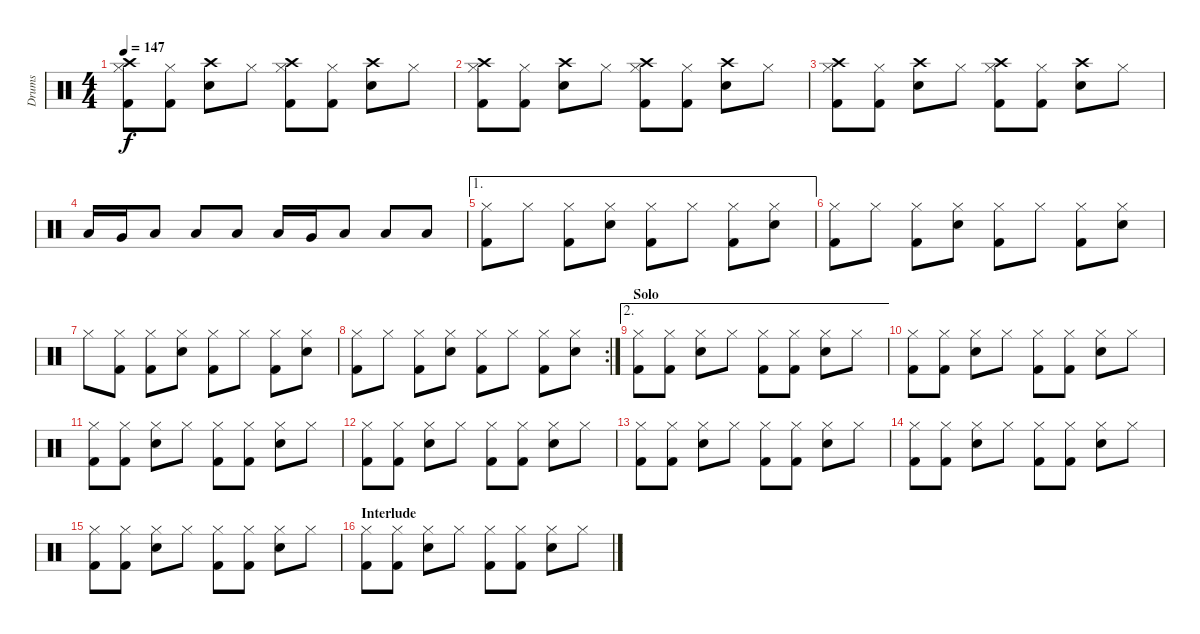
\track ("Drums" "Drums") {instrument percussion}
\staff {score}
\articulation defaults
\ts (4 4)
\tempo 147
\clef neutral
\ks c
("Kick (hit) 2" "Hi-Hat (closed)" "Crash high (hit)").8{dy f} ("Kick (hit) 2" "Hi-Hat (closed)").8 ("Electric Snare (hit)" "Crash high (hit)").8 "Hi-Hat (closed)".8 ("Kick (hit) 2" "Hi-Hat (closed)" "Crash high (hit)").8 ("Kick (hit) 2" "Hi-Hat (closed)").8 ("Electric Snare (hit)" "Crash high (hit)").8 "Hi-Hat (closed)".8 |
("Kick (hit) 2" "Hi-Hat (closed)" "Crash high (hit)").8 ("Kick (hit) 2" "Hi-Hat (closed)").8 ("Electric Snare (hit)" "Crash high (hit)").8 "Hi-Hat (closed)".8 ("Kick (hit) 2" "Hi-Hat (closed)" "Crash high (hit)").8 ("Kick (hit) 2" "Hi-Hat (closed)").8 ("Electric Snare (hit)" "Crash high (hit)").8 "Hi-Hat (closed)".8 |
("Kick (hit) 2" "Hi-Hat (closed)" "Crash high (hit)").8 ("Kick (hit) 2" "Hi-Hat (closed)").8 ("Electric Snare (hit)" "Crash high (hit)").8 "Hi-Hat (closed)".8 ("Kick (hit) 2" "Hi-Hat (closed)" "Crash high (hit)").8 ("Kick (hit) 2" "Hi-Hat (closed)").8 ("Electric Snare (hit)" "Crash high (hit)").8 "Hi-Hat (closed)".8 |
"Low Tom (hit)".16 "Very Low Tom (hit)".16 "Low Floor Tom (hit)".8 "Low Floor Tom (hit)".8 "Low Floor Tom (hit)".8 "Low Tom (hit)".16 "Very Low Tom (hit)".16 "Low Floor Tom (hit)".8 "Low Floor Tom (hit)".8 "Low Floor Tom (hit)".8 |
\ae 1
("Kick (hit) 2" "Hi-Hat (closed)").8 "Hi-Hat (closed)".8 ("Kick (hit) 2" "Hi-Hat (closed)").8 ("Electric Snare (hit)" "Hi-Hat (closed)").8 ("Kick (hit) 2" "Hi-Hat (closed)").8 "Hi-Hat (closed)".8 ("Kick (hit) 2" "Hi-Hat (closed)").8 ("Electric Snare (hit)" "Hi-Hat (closed)").8 |
("Kick (hit) 2" "Hi-Hat (closed)").8 "Hi-Hat (closed)".8 ("Kick (hit) 2" "Hi-Hat (closed)").8 ("Electric Snare (hit)" "Hi-Hat (closed)").8 ("Kick (hit) 2" "Hi-Hat (closed)").8 "Hi-Hat (closed)".8 ("Kick (hit) 2" "Hi-Hat (closed)").8 ("Electric Snare (hit)" "Hi-Hat (closed)").8 |
"Hi-Hat (closed)".8 ("Kick (hit) 2" "Hi-Hat (closed)").8 ("Kick (hit) 2" "Hi-Hat (closed)").8 ("Electric Snare (hit)" "Hi-Hat (closed)").8 ("Kick (hit) 2" "Hi-Hat (closed)").8 "Hi-Hat (closed)".8 ("Kick (hit) 2" "Hi-Hat (closed)").8 ("Electric Snare (hit)" "Hi-Hat (closed)").8 |
\rc 2
("Kick (hit) 2" "Hi-Hat (closed)").8 "Hi-Hat (closed)".8 ("Kick (hit) 2" "Hi-Hat (closed)").8 ("Electric Snare (hit)" "Hi-Hat (closed)").8 ("Kick (hit) 2" "Hi-Hat (closed)").8 "Hi-Hat (closed)".8 ("Kick (hit) 2" "Hi-Hat (closed)").8 ("Electric Snare (hit)" "Hi-Hat (closed)").8 |
\ae 2
\section ("" "Solo")
("Kick (hit) 2" "Hi-Hat (closed)").8 ("Kick (hit) 2" "Hi-Hat (closed)").8 ("Electric Snare (hit)" "Hi-Hat (closed)").8 "Hi-Hat (closed)".8 ("Kick (hit) 2" "Hi-Hat (closed)").8 ("Kick (hit) 2" "Hi-Hat (closed)").8 ("Electric Snare (hit)" "Hi-Hat (closed)").8 "Hi-Hat (closed)".8 |
("Kick (hit) 2" "Hi-Hat (closed)").8 ("Kick (hit) 2" "Hi-Hat (closed)").8 ("Electric Snare (hit)" "Hi-Hat (closed)").8 "Hi-Hat (closed)".8 ("Kick (hit) 2" "Hi-Hat (closed)").8 ("Kick (hit) 2" "Hi-Hat (closed)").8 ("Electric Snare (hit)" "Hi-Hat (closed)").8 "Hi-Hat (closed)".8 |
("Kick (hit) 2" "Hi-Hat (closed)").8 ("Kick (hit) 2" "Hi-Hat (closed)").8 ("Electric Snare (hit)" "Hi-Hat (closed)").8 "Hi-Hat (closed)".8 ("Kick (hit) 2" "Hi-Hat (closed)").8 ("Kick (hit) 2" "Hi-Hat (closed)").8 ("Electric Snare (hit)" "Hi-Hat (closed)").8 "Hi-Hat (closed)".8 |
("Kick (hit) 2" "Hi-Hat (closed)").8 ("Kick (hit) 2" "Hi-Hat (closed)").8 ("Electric Snare (hit)" "Hi-Hat (closed)").8 "Hi-Hat (closed)".8 ("Kick (hit) 2" "Hi-Hat (closed)").8 ("Kick (hit) 2" "Hi-Hat (closed)").8 ("Electric Snare (hit)" "Hi-Hat (closed)").8 "Hi-Hat (closed)".8 |
("Kick (hit) 2" "Hi-Hat (closed)").8 ("Kick (hit) 2" "Hi-Hat (closed)").8 ("Electric Snare (hit)" "Hi-Hat (closed)").8 "Hi-Hat (closed)".8 ("Kick (hit) 2" "Hi-Hat (closed)").8 ("Kick (hit) 2" "Hi-Hat (closed)").8 ("Electric Snare (hit)" "Hi-Hat (closed)").8 "Hi-Hat (closed)".8 |
("Kick (hit) 2" "Hi-Hat (closed)").8 ("Kick (hit) 2" "Hi-Hat (closed)").8 ("Electric Snare (hit)" "Hi-Hat (closed)").8 "Hi-Hat (closed)".8 ("Kick (hit) 2" "Hi-Hat (closed)").8 ("Kick (hit) 2" "Hi-Hat (closed)").8 ("Electric Snare (hit)" "Hi-Hat (closed)").8 "Hi-Hat (closed)".8 |
("Kick (hit) 2" "Hi-Hat (closed)").8 ("Kick (hit) 2" "Hi-Hat (closed)").8 ("Electric Snare (hit)" "Hi-Hat (closed)").8 "Hi-Hat (closed)".8 ("Kick (hit) 2" "Hi-Hat (closed)").8 ("Kick (hit) 2" "Hi-Hat (closed)").8 ("Electric Snare (hit)" "Hi-Hat (closed)").8 "Hi-Hat (closed)".8 |
\section ("" "Interlude")
("Kick (hit) 2" "Hi-Hat (closed)").8 ("Kick (hit) 2" "Hi-Hat (closed)").8 ("Electric Snare (hit)" "Hi-Hat (closed)").8 "Hi-Hat (closed)".8 ("Kick (hit) 2" "Hi-Hat (closed)").8 ("Kick (hit) 2" "Hi-Hat (closed)").8 ("Electric Snare (hit)" "Hi-Hat (closed)").8 "Hi-Hat (closed)".8
